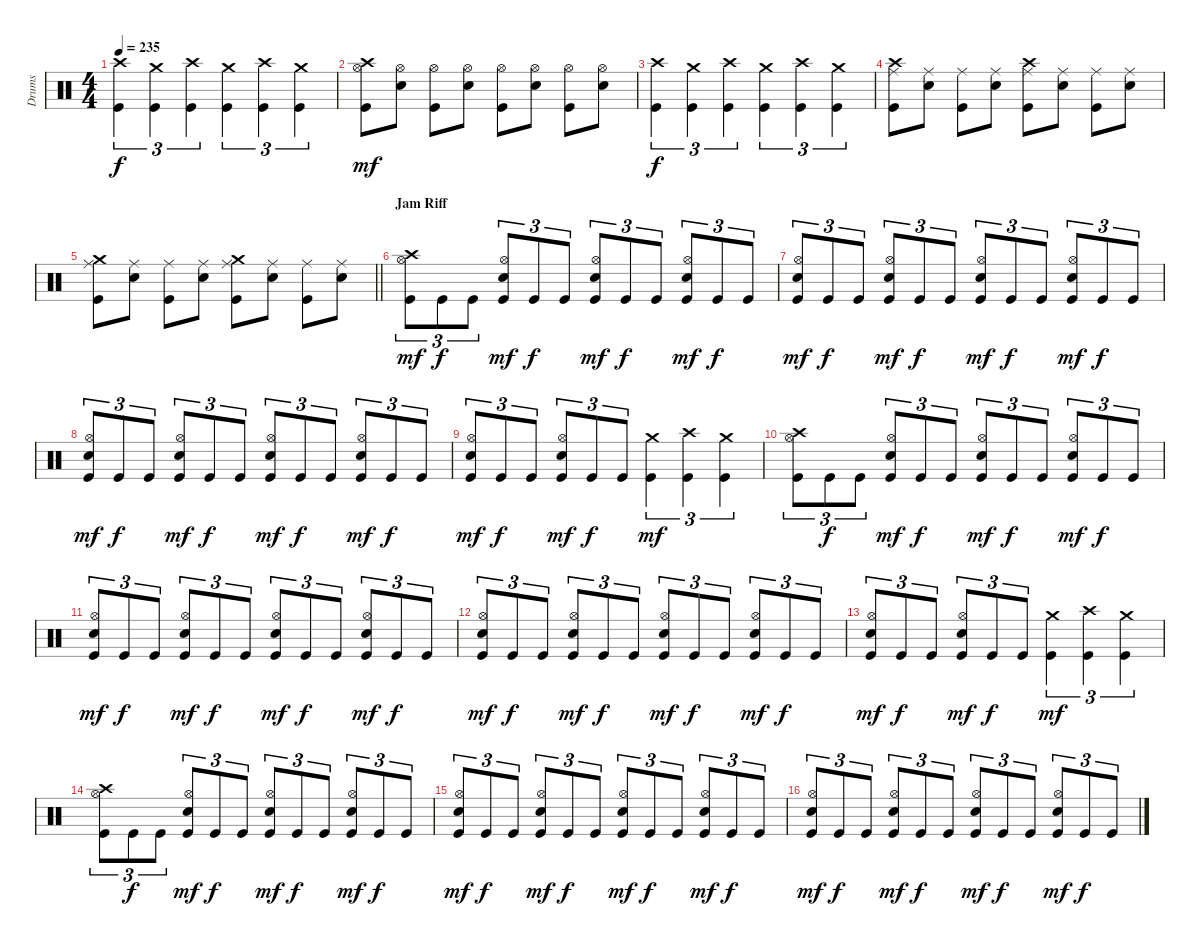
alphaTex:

\track ("Drums" "Drums") {instrument percussion}
\staff {score}
\articulation defaults
\ts (4 4)
\tempo 235
\clef neutral
\ks c
("Crash high (hit)" "Kick (hit)").4{tu (3 2) dy f} ("Crash medium (hit)" "Kick (hit)").4{tu (3 2)} ("Crash high (hit)" "Kick (hit)").4{tu (3 2)} ("Crash medium (hit)" "Kick (hit)").4{tu (3 2)} ("Crash high (hit)" "Kick (hit)").4{tu (3 2)} ("Crash medium (hit)" "Kick (hit)").4{tu (3 2)} |
("Crash high (hit)" "Hi-Hat (open)" "Kick (hit)").8{dy mf} ("Hi-Hat (open)" "Electric Snare (hit)").8 ("Hi-Hat (open)" "Kick (hit)").8 ("Hi-Hat (open)" "Electric Snare (hit)").8 ("Hi-Hat (open)" "Kick (hit)").8 ("Hi-Hat (open)" "Electric Snare (hit)").8 ("Hi-Hat (open)" "Kick (hit)").8 ("Hi-Hat (open)" "Electric Snare (hit)").8 |
("Crash high (hit)" "Kick (hit)").4{tu (3 2) dy f} ("Crash medium (hit)" "Kick (hit)").4{tu (3 2)} ("Crash high (hit)" "Kick (hit)").4{tu (3 2)} ("Crash medium (hit)" "Kick (hit)").4{tu (3 2)} ("Crash high (hit)" "Kick (hit)").4{tu (3 2)} ("Crash medium (hit)" "Kick (hit)").4{tu (3 2)} |
("Crash high (hit)" "Ride (middle)" "Kick (hit)").8 ("Ride (middle)" "Electric Snare (hit)").8 ("Ride (middle)" "Kick (hit)").8 ("Ride (middle)" "Electric Snare (hit)").8 ("Crash high (hit)" "Ride (middle)" "Kick (hit)").8 ("Ride (middle)" "Electric Snare (hit)").8 ("Ride (middle)" "Kick (hit)").8 ("Ride (middle)" "Electric Snare (hit)").8 |
\barLineRight lightlight
("Crash medium (hit)" "Ride (middle)" "Kick (hit)").8 ("Ride (middle)" "Electric Snare (hit)").8 ("Ride (middle)" "Kick (hit)").8 ("Ride (middle)" "Electric Snare (hit)").8 ("Crash medium (hit)" "Ride (middle)" "Kick (hit)").8 ("Ride (middle)" "Electric Snare (hit)").8 ("Ride (middle)" "Kick (hit)").8 ("Ride (middle)" "Electric Snare (hit)").8 |
\section ("" "Jam Riff")
("Crash high (hit)" "Hi-Hat (open)" "Kick (hit)").8{tu (3 2) dy mf} "Kick (hit)".8{tu (3 2) dy f} "Kick (hit)".8{tu (3 2)} ("Hi-Hat (open)" "Electric Snare (hit)" "Kick (hit)").8{tu (3 2) dy mf} "Kick (hit)".8{tu (3 2) dy f} "Kick (hit)".8{tu (3 2)} ("Hi-Hat (open)" "Electric Snare (hit)" "Kick (hit)").8{tu (3 2) dy mf} "Kick (hit)".8{tu (3 2) dy f} "Kick (hit)".8{tu (3 2)} ("Hi-Hat (open)" "Electric Snare (hit)" "Kick (hit)").8{tu (3 2) dy mf} "Kick (hit)".8{tu (3 2) dy f} "Kick (hit)".8{tu (3 2)} |
("Hi-Hat (open)" "Electric Snare (hit)" "Kick (hit)").8{tu (3 2) dy mf} "Kick (hit)".8{tu (3 2) dy f} "Kick (hit)".8{tu (3 2)} ("Hi-Hat (open)" "Electric Snare (hit)" "Kick (hit)").8{tu (3 2) dy mf} "Kick (hit)".8{tu (3 2) dy f} "Kick (hit)".8{tu (3 2)} ("Hi-Hat (open)" "Electric Snare (hit)" "Kick (hit)").8{tu (3 2) dy mf} "Kick (hit)".8{tu (3 2) dy f} "Kick (hit)".8{tu (3 2)} ("Hi-Hat (open)" "Electric Snare (hit)" "Kick (hit)").8{tu (3 2) dy mf} "Kick (hit)".8{tu (3 2) dy f} "Kick (hit)".8{tu (3 2)} |
("Hi-Hat (open)" "Electric Snare (hit)" "Kick (hit)").8{tu (3 2) dy mf} "Kick (hit)".8{tu (3 2) dy f} "Kick (hit)".8{tu (3 2)} ("Hi-Hat (open)" "Electric Snare (hit)" "Kick (hit)").8{tu (3 2) dy mf} "Kick (hit)".8{tu (3 2) dy f} "Kick (hit)".8{tu (3 2)} ("Hi-Hat (open)" "Electric Snare (hit)" "Kick (hit)").8{tu (3 2) dy mf} "Kick (hit)".8{tu (3 2) dy f} "Kick (hit)".8{tu (3 2)} ("Hi-Hat (open)" "Electric Snare (hit)" "Kick (hit)").8{tu (3 2) dy mf} "Kick (hit)".8{tu (3 2) dy f} "Kick (hit)".8{tu (3 2)} |
("Hi-Hat (open)" "Electric Snare (hit)" "Kick (hit)").8{tu (3 2) dy mf} "Kick (hit)".8{tu (3 2) dy f} "Kick (hit)".8{tu (3 2)} ("Hi-Hat (open)" "Electric Snare (hit)" "Kick (hit)").8{tu (3 2) dy mf} "Kick (hit)".8{tu (3 2) dy f} "Kick (hit)".8{tu (3 2)} ("Crash medium (hit)" "Kick (hit)").4{tu (3 2) dy mf} ("Crash high (hit)" "Kick (hit)").4{tu (3 2)} ("Crash medium (hit)" "Kick (hit)").4{tu (3 2)} |
("Crash high (hit)" "Hi-Hat (open)" "Kick (hit)").8{tu (3 2)} "Kick (hit)".8{tu (3 2) dy f} "Kick (hit)".8{tu (3 2)} ("Hi-Hat (open)" "Electric Snare (hit)" "Kick (hit)").8{tu (3 2) dy mf} "Kick (hit)".8{tu (3 2) dy f} "Kick (hit)".8{tu (3 2)} ("Hi-Hat (open)" "Electric Snare (hit)" "Kick (hit)").8{tu (3 2) dy mf} "Kick (hit)".8{tu (3 2) dy f} "Kick (hit)".8{tu (3 2)} ("Hi-Hat (open)" "Electric Snare (hit)" "Kick (hit)").8{tu (3 2) dy mf} "Kick (hit)".8{tu (3 2) dy f} "Kick (hit)".8{tu (3 2)} |
("Hi-Hat (open)" "Electric Snare (hit)" "Kick (hit)").8{tu (3 2) dy mf} "Kick (hit)".8{tu (3 2) dy f} "Kick (hit)".8{tu (3 2)} ("Hi-Hat (open)" "Electric Snare (hit)" "Kick (hit)").8{tu (3 2) dy mf} "Kick (hit)".8{tu (3 2) dy f} "Kick (hit)".8{tu (3 2)} ("Hi-Hat (open)" "Electric Snare (hit)" "Kick (hit)").8{tu (3 2) dy mf} "Kick (hit)".8{tu (3 2) dy f} "Kick (hit)".8{tu (3 2)} ("Hi-Hat (open)" "Electric Snare (hit)" "Kick (hit)").8{tu (3 2) dy mf} "Kick (hit)".8{tu (3 2) dy f} "Kick (hit)".8{tu (3 2)} |
("Hi-Hat (open)" "Electric Snare (hit)" "Kick (hit)").8{tu (3 2) dy mf} "Kick (hit)".8{tu (3 2) dy f} "Kick (hit)".8{tu (3 2)} ("Hi-Hat (open)" "Electric Snare (hit)" "Kick (hit)").8{tu (3 2) dy mf} "Kick (hit)".8{tu (3 2) dy f} "Kick (hit)".8{tu (3 2)} ("Hi-Hat (open)" "Electric Snare (hit)" "Kick (hit)").8{tu (3 2) dy mf} "Kick (hit)".8{tu (3 2) dy f} "Kick (hit)".8{tu (3 2)} ("Hi-Hat (open)" "Electric Snare (hit)" "Kick (hit)").8{tu (3 2) dy mf} "Kick (hit)".8{tu (3 2) dy f} "Kick (hit)".8{tu (3 2)} |
("Hi-Hat (open)" "Electric Snare (hit)" "Kick (hit)").8{tu (3 2) dy mf} "Kick (hit)".8{tu (3 2) dy f} "Kick (hit)".8{tu (3 2)} ("Hi-Hat (open)" "Electric Snare (hit)" "Kick (hit)").8{tu (3 2) dy mf} "Kick (hit)".8{tu (3 2) dy f} "Kick (hit)".8{tu (3 2)} ("Crash medium (hit)" "Kick (hit)").4{tu (3 2) dy mf} ("Crash high (hit)" "Kick (hit)").4{tu (3 2)} ("Crash medium (hit)" "Kick (hit)").4{tu (3 2)} |
("Crash high (hit)" "Hi-Hat (open)" "Kick (hit)").8{tu (3 2)} "Kick (hit)".8{tu (3 2) dy f} "Kick (hit)".8{tu (3 2)} ("Hi-Hat (open)" "Electric Snare (hit)" "Kick (hit)").8{tu (3 2) dy mf} "Kick (hit)".8{tu (3 2) dy f} "Kick (hit)".8{tu (3 2)} ("Hi-Hat (open)" "Electric Snare (hit)" "Kick (hit)").8{tu (3 2) dy mf} "Kick (hit)".8{tu (3 2) dy f} "Kick (hit)".8{tu (3 2)} ("Hi-Hat (open)" "Electric Snare (hit)" "Kick (hit)").8{tu (3 2) dy mf} "Kick (hit)".8{tu (3 2) dy f} "Kick (hit)".8{tu (3 2)} |
("Hi-Hat (open)" "Electric Snare (hit)" "Kick (hit)").8{tu (3 2) dy mf} "Kick (hit)".8{tu (3 2) dy f} "Kick (hit)".8{tu (3 2)} ("Hi-Hat (open)" "Electric Snare (hit)" "Kick (hit)").8{tu (3 2) dy mf} "Kick (hit)".8{tu (3 2) dy f} "Kick (hit)".8{tu (3 2)} ("Hi-Hat (open)" "Electric Snare (hit)" "Kick (hit)").8{tu (3 2) dy mf} "Kick (hit)".8{tu (3 2) dy f} "Kick (hit)".8{tu (3 2)} ("Hi-Hat (open)" "Electric Snare (hit)" "Kick (hit)").8{tu (3 2) dy mf} "Kick (hit)".8{tu (3 2) dy f} "Kick (hit)".8{tu (3 2)} |
("Hi-Hat (open)" "Electric Snare (hit)" "Kick (hit)").8{tu (3 2) dy mf} "Kick (hit)".8{tu (3 2) dy f} "Kick (hit)".8{tu (3 2)} ("Hi-Hat (open)" "Electric Snare (hit)" "Kick (hit)").8{tu (3 2) dy mf} "Kick (hit)".8{tu (3 2) dy f} "Kick (hit)".8{tu (3 2)} ("Hi-Hat (open)" "Electric Snare (hit)" "Kick (hit)").8{tu (3 2) dy mf} "Kick (hit)".8{tu (3 2) dy f} "Kick (hit)".8{tu (3 2)} ("Hi-Hat (open)" "Electric Snare (hit)" "Kick (hit)").8{tu (3 2) dy mf} "Kick (hit)".8{tu (3 2) dy f} "Kick (hit)".8{tu (3 2)}
